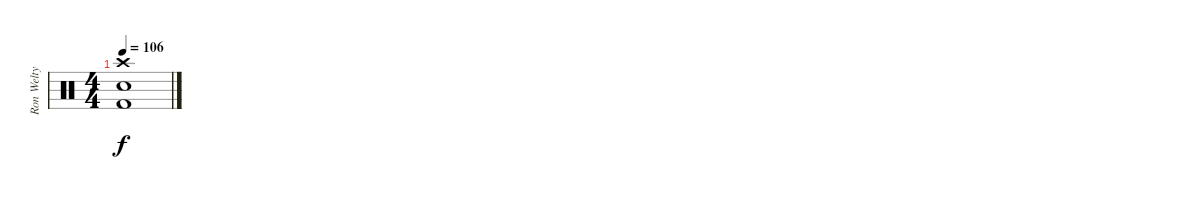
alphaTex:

\track ("Ron Welty - Drummer" "Ron Welty ") {instrument percussion}
\staff {score}
\articulation defaults
\ts (4 4)
\tempo 106
\clef neutral
\ks c
("Kick (hit) 2" "Electric Snare (hit)" "Crash high (hit)").1{dy f}
